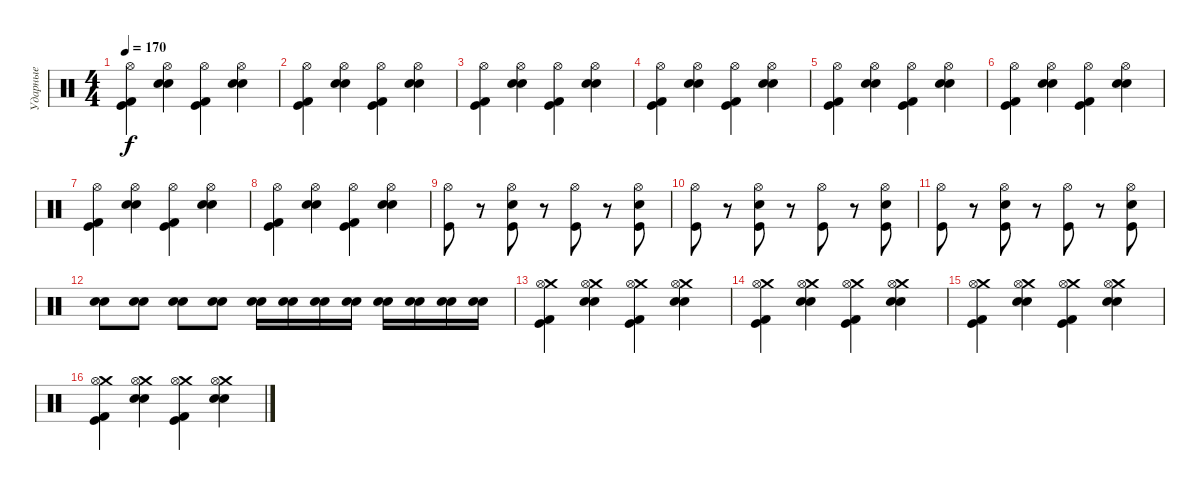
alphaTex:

\track ("Ударные" "Ударные") {instrument percussion}
\staff {score}
\articulation defaults
\ts (4 4)
\tempo 170
\clef neutral
\ks c
("Hi-Hat (open)" "Kick (hit)" "Kick (hit) 2").4{dy f} ("Hi-Hat (open)" "Electric Snare (hit)" "Snare (hit) 2").4 ("Hi-Hat (open)" "Kick (hit)" "Kick (hit) 2").4 ("Hi-Hat (open)" "Electric Snare (hit)" "Snare (hit) 2").4 |
("Hi-Hat (open)" "Kick (hit)" "Kick (hit) 2").4 ("Hi-Hat (open)" "Electric Snare (hit)" "Snare (hit) 2").4 ("Hi-Hat (open)" "Kick (hit)" "Kick (hit) 2").4 ("Hi-Hat (open)" "Electric Snare (hit)" "Snare (hit) 2").4 |
("Hi-Hat (open)" "Kick (hit)" "Kick (hit) 2").4 ("Hi-Hat (open)" "Electric Snare (hit)" "Snare (hit) 2").4 ("Hi-Hat (open)" "Kick (hit)" "Kick (hit) 2").4 ("Hi-Hat (open)" "Electric Snare (hit)" "Snare (hit) 2").4 |
("Hi-Hat (open)" "Kick (hit)" "Kick (hit) 2").4 ("Hi-Hat (open)" "Electric Snare (hit)" "Snare (hit) 2").4 ("Hi-Hat (open)" "Kick (hit)" "Kick (hit) 2").4 ("Hi-Hat (open)" "Electric Snare (hit)" "Snare (hit) 2").4 |
("Hi-Hat (open)" "Kick (hit)" "Kick (hit) 2").4 ("Hi-Hat (open)" "Electric Snare (hit)" "Snare (hit) 2").4 ("Hi-Hat (open)" "Kick (hit)" "Kick (hit) 2").4 ("Hi-Hat (open)" "Electric Snare (hit)" "Snare (hit) 2").4 |
("Hi-Hat (open)" "Kick (hit)" "Kick (hit) 2").4 ("Hi-Hat (open)" "Electric Snare (hit)" "Snare (hit) 2").4 ("Hi-Hat (open)" "Kick (hit)" "Kick (hit) 2").4 ("Hi-Hat (open)" "Electric Snare (hit)" "Snare (hit) 2").4 |
("Hi-Hat (open)" "Kick (hit)" "Kick (hit) 2").4 ("Hi-Hat (open)" "Electric Snare (hit)" "Snare (hit) 2").4 ("Hi-Hat (open)" "Kick (hit)" "Kick (hit) 2").4 ("Hi-Hat (open)" "Electric Snare (hit)" "Snare (hit) 2").4 |
("Hi-Hat (open)" "Kick (hit)" "Kick (hit) 2").4 ("Hi-Hat (open)" "Electric Snare (hit)" "Snare (hit) 2").4 ("Hi-Hat (open)" "Kick (hit)" "Kick (hit) 2").4 ("Hi-Hat (open)" "Electric Snare (hit)" "Snare (hit) 2").4 |
("Hi-Hat (open)" "Kick (hit)").8 r.8 ("Hi-Hat (open)" "Kick (hit)" "Electric Snare (hit)").8 r.8 ("Hi-Hat (open)" "Kick (hit)").8 r.8 ("Hi-Hat (open)" "Kick (hit)" "Electric Snare (hit)").8 |
("Hi-Hat (open)" "Kick (hit)").8 r.8 ("Hi-Hat (open)" "Kick (hit)" "Electric Snare (hit)").8 r.8 ("Hi-Hat (open)" "Kick (hit)").8 r.8 ("Hi-Hat (open)" "Kick (hit)" "Electric Snare (hit)").8 |
("Hi-Hat (open)" "Kick (hit)").8 r.8 ("Hi-Hat (open)" "Kick (hit)" "Electric Snare (hit)").8 r.8 ("Hi-Hat (open)" "Kick (hit)").8 r.8 ("Hi-Hat (open)" "Kick (hit)" "Electric Snare (hit)").8 |
("Snare (hit) 2" "Electric Snare (hit)").8 ("Snare (hit) 2" "Electric Snare (hit)").8 ("Snare (hit) 2" "Electric Snare (hit)").8 ("Snare (hit) 2" "Electric Snare (hit)").8 ("Snare (hit) 2" "Electric Snare (hit)").16 ("Snare (hit) 2" "Electric Snare (hit)").16 ("Snare (hit) 2" "Electric Snare (hit)").16 ("Snare (hit) 2" "Electric Snare (hit)").16 ("Snare (hit) 2" "Electric Snare (hit)").16 ("Snare (hit) 2" "Electric Snare (hit)").16 ("Snare (hit) 2" "Electric Snare (hit)").16 ("Snare (hit) 2" "Electric Snare (hit)").16 |
("Crash medium (hit)" "Hi-Hat (open)" "Kick (hit)" "Kick (hit) 2").4 ("Crash medium (hit)" "Hi-Hat (open)" "Electric Snare (hit)" "Snare (hit) 2").4 ("Crash medium (hit)" "Hi-Hat (open)" "Kick (hit)" "Kick (hit) 2").4 ("Crash medium (hit)" "Hi-Hat (open)" "Electric Snare (hit)" "Snare (hit) 2").4 |
("Crash medium (hit)" "Hi-Hat (open)" "Kick (hit)" "Kick (hit) 2").4 ("Crash medium (hit)" "Hi-Hat (open)" "Electric Snare (hit)" "Snare (hit) 2").4 ("Crash medium (hit)" "Hi-Hat (open)" "Kick (hit)" "Kick (hit) 2").4 ("Crash medium (hit)" "Hi-Hat (open)" "Electric Snare (hit)" "Snare (hit) 2").4 |
("Crash medium (hit)" "Hi-Hat (open)" "Kick (hit)" "Kick (hit) 2").4 ("Crash medium (hit)" "Hi-Hat (open)" "Electric Snare (hit)" "Snare (hit) 2").4 ("Crash medium (hit)" "Hi-Hat (open)" "Kick (hit)" "Kick (hit) 2").4 ("Crash medium (hit)" "Hi-Hat (open)" "Electric Snare (hit)" "Snare (hit) 2").4 |
("Crash medium (hit)" "Hi-Hat (open)" "Kick (hit)" "Kick (hit) 2").4 ("Crash medium (hit)" "Hi-Hat (open)" "Electric Snare (hit)" "Snare (hit) 2").4 ("Crash medium (hit)" "Hi-Hat (open)" "Kick (hit)" "Kick (hit) 2").4 ("Crash medium (hit)" "Hi-Hat (open)" "Electric Snare (hit)" "Snare (hit) 2").4
